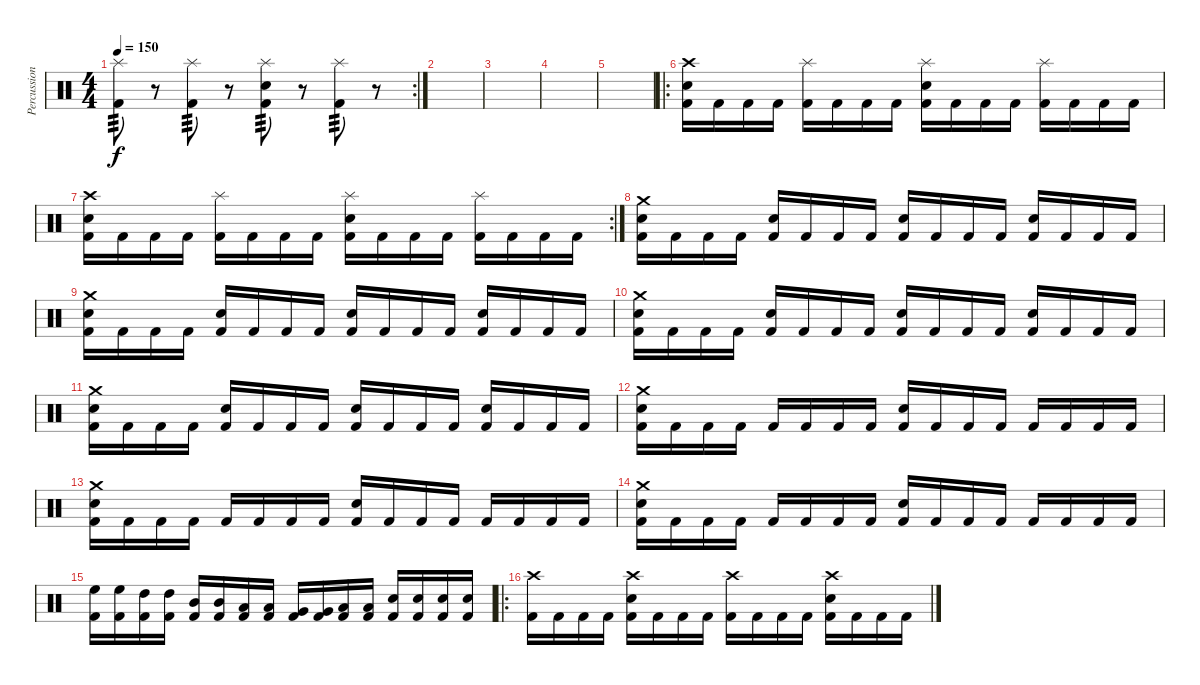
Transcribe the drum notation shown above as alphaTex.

\track ("Percussion" "Percussion") {instrument percussion}
\staff {score}
\articulation defaults
\rc 2
\ts (4 4)
\tempo 150
\clef neutral
\ks c
("Splash (hit)" "Kick (hit) 2").8{tp 3 dy f} r.8 ("Splash (hit)" "Kick (hit) 2").8{tp 3} r.8 ("Splash (hit)" "Snare (hit) 2" "Kick (hit) 2").8{tp 3} r.8 ("Splash (hit)" "Kick (hit) 2").8{tp 3} r.8 |
|
|
|
|
\ro
("Crash high (hit)" "Snare (hit) 2" "Kick (hit) 2").16 "Kick (hit) 2".16 "Kick (hit) 2".16 "Kick (hit) 2".16 ("Splash (hit)" "Kick (hit) 2").16 "Kick (hit) 2".16 "Kick (hit) 2".16 "Kick (hit) 2".16 ("Splash (hit)" "Snare (hit) 2" "Kick (hit) 2").16 "Kick (hit) 2".16 "Kick (hit) 2".16 "Kick (hit) 2".16 ("Splash (hit)" "Kick (hit) 2").16 "Kick (hit) 2".16 "Kick (hit) 2".16 "Kick (hit) 2".16 |
\rc 2
("Crash high (hit)" "Snare (hit) 2" "Kick (hit) 2").16 "Kick (hit) 2".16 "Kick (hit) 2".16 "Kick (hit) 2".16 ("Splash (hit)" "Kick (hit) 2").16 "Kick (hit) 2".16 "Kick (hit) 2".16 "Kick (hit) 2".16 ("Splash (hit)" "Snare (hit) 2" "Kick (hit) 2").16 "Kick (hit) 2".16 "Kick (hit) 2".16 "Kick (hit) 2".16 ("Splash (hit)" "Kick (hit) 2").16 "Kick (hit) 2".16 "Kick (hit) 2".16 "Kick (hit) 2".16 |
("Crash medium (hit)" "Snare (hit) 2" "Kick (hit) 2").16 "Kick (hit) 2".16 "Kick (hit) 2".16 "Kick (hit) 2".16 ("Snare (hit) 2" "Kick (hit) 2").16 "Kick (hit) 2".16 "Kick (hit) 2".16 "Kick (hit) 2".16 ("Snare (hit) 2" "Kick (hit) 2").16 "Kick (hit) 2".16 "Kick (hit) 2".16 "Kick (hit) 2".16 ("Snare (hit) 2" "Kick (hit) 2").16 "Kick (hit) 2".16 "Kick (hit) 2".16 "Kick (hit) 2".16 |
("Crash medium (hit)" "Snare (hit) 2" "Kick (hit) 2").16 "Kick (hit) 2".16 "Kick (hit) 2".16 "Kick (hit) 2".16 ("Snare (hit) 2" "Kick (hit) 2").16 "Kick (hit) 2".16 "Kick (hit) 2".16 "Kick (hit) 2".16 ("Snare (hit) 2" "Kick (hit) 2").16 "Kick (hit) 2".16 "Kick (hit) 2".16 "Kick (hit) 2".16 ("Snare (hit) 2" "Kick (hit) 2").16 "Kick (hit) 2".16 "Kick (hit) 2".16 "Kick (hit) 2".16 |
("Crash medium (hit)" "Snare (hit) 2" "Kick (hit) 2").16 "Kick (hit) 2".16 "Kick (hit) 2".16 "Kick (hit) 2".16 ("Snare (hit) 2" "Kick (hit) 2").16 "Kick (hit) 2".16 "Kick (hit) 2".16 "Kick (hit) 2".16 ("Snare (hit) 2" "Kick (hit) 2").16 "Kick (hit) 2".16 "Kick (hit) 2".16 "Kick (hit) 2".16 ("Snare (hit) 2" "Kick (hit) 2").16 "Kick (hit) 2".16 "Kick (hit) 2".16 "Kick (hit) 2".16 |
("Crash medium (hit)" "Snare (hit) 2" "Kick (hit) 2").16 "Kick (hit) 2".16 "Kick (hit) 2".16 "Kick (hit) 2".16 ("Snare (hit) 2" "Kick (hit) 2").16 "Kick (hit) 2".16 "Kick (hit) 2".16 "Kick (hit) 2".16 ("Snare (hit) 2" "Kick (hit) 2").16 "Kick (hit) 2".16 "Kick (hit) 2".16 "Kick (hit) 2".16 ("Snare (hit) 2" "Kick (hit) 2").16 "Kick (hit) 2".16 "Kick (hit) 2".16 "Kick (hit) 2".16 |
("Crash medium (hit)" "Snare (hit) 2" "Kick (hit) 2").16 "Kick (hit) 2".16 "Kick (hit) 2".16 "Kick (hit) 2".16 "Kick (hit) 2".16 "Kick (hit) 2".16 "Kick (hit) 2".16 "Kick (hit) 2".16 ("Snare (hit) 2" "Kick (hit) 2").16 "Kick (hit) 2".16 "Kick (hit) 2".16 "Kick (hit) 2".16 "Kick (hit) 2".16 "Kick (hit) 2".16 "Kick (hit) 2".16 "Kick (hit) 2".16 |
("Crash medium (hit)" "Snare (hit) 2" "Kick (hit) 2").16 "Kick (hit) 2".16 "Kick (hit) 2".16 "Kick (hit) 2".16 "Kick (hit) 2".16 "Kick (hit) 2".16 "Kick (hit) 2".16 "Kick (hit) 2".16 ("Snare (hit) 2" "Kick (hit) 2").16 "Kick (hit) 2".16 "Kick (hit) 2".16 "Kick (hit) 2".16 "Kick (hit) 2".16 "Kick (hit) 2".16 "Kick (hit) 2".16 "Kick (hit) 2".16 |
("Crash medium (hit)" "Snare (hit) 2" "Kick (hit) 2").16 "Kick (hit) 2".16 "Kick (hit) 2".16 "Kick (hit) 2".16 "Kick (hit) 2".16 "Kick (hit) 2".16 "Kick (hit) 2".16 "Kick (hit) 2".16 ("Snare (hit) 2" "Kick (hit) 2").16 "Kick (hit) 2".16 "Kick (hit) 2".16 "Kick (hit) 2".16 "Kick (hit) 2".16 "Kick (hit) 2".16 "Kick (hit) 2".16 "Kick (hit) 2".16 |
("High Floor Tom (hit)" "Kick (hit) 2").16 ("High Floor Tom (hit)" "Kick (hit) 2").16 ("High Tom (hit)" "Kick (hit) 2").16 ("High Tom (hit)" "Kick (hit) 2").16 ("Mid Tom (hit)" "Kick (hit) 2").16 ("Mid Tom (hit)" "Kick (hit) 2").16 ("Low Tom (hit)" "Kick (hit) 2").16 ("Low Tom (hit)" "Kick (hit) 2").16 ("Very Low Tom (hit)" "Kick (hit) 2").16 ("Very Low Tom (hit)" "Kick (hit) 2").16 ("Low Floor Tom (hit)" "Kick (hit) 2").16 ("Low Floor Tom (hit)" "Kick (hit) 2").16 ("Snare (hit) 2" "Kick (hit) 2").16 ("Snare (hit) 2" "Kick (hit) 2").16 ("Snare (hit) 2" "Kick (hit) 2").16 ("Snare (hit) 2" "Kick (hit) 2").16 |
\ro
("Crash high (hit)" "Kick (hit) 2").16 "Kick (hit) 2".16 "Kick (hit) 2".16 "Kick (hit) 2".16 ("Crash high (hit)" "Snare (hit) 2" "Kick (hit) 2").16 "Kick (hit) 2".16 "Kick (hit) 2".16 "Kick (hit) 2".16 ("Crash high (hit)" "Kick (hit) 2").16 "Kick (hit) 2".16 "Kick (hit) 2".16 "Kick (hit) 2".16 ("Crash high (hit)" "Snare (hit) 2" "Kick (hit) 2").16 "Kick (hit) 2".16 "Kick (hit) 2".16 "Kick (hit) 2".16
